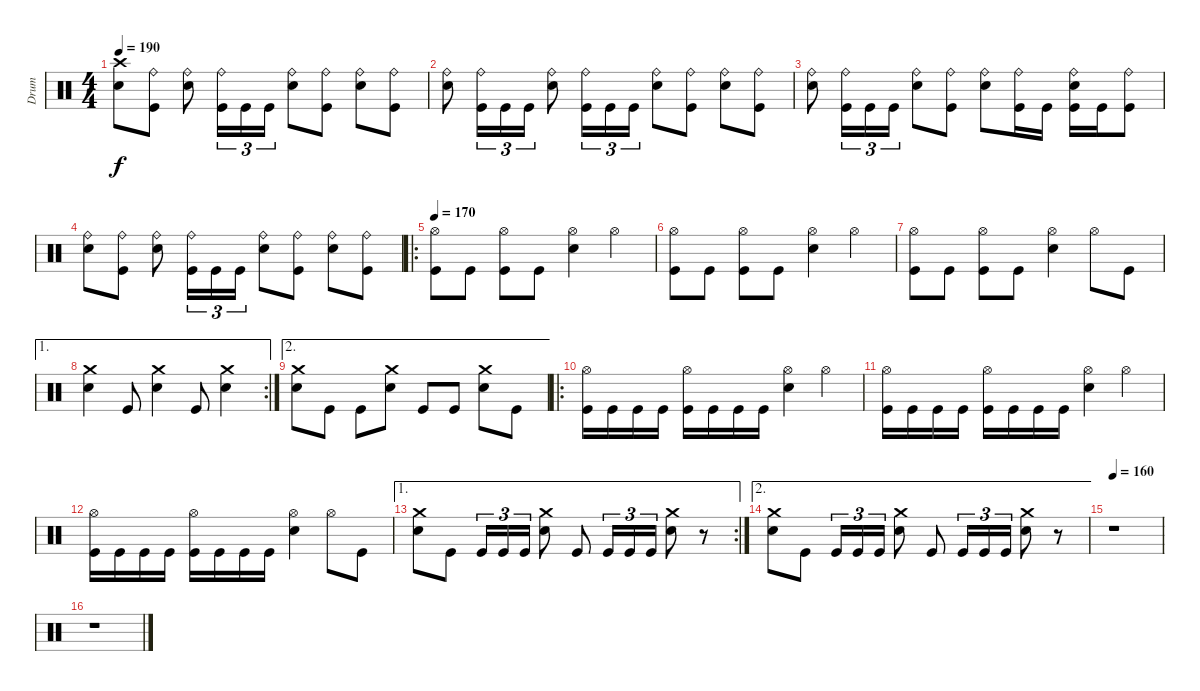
\track ("Drum" "Drum") {instrument percussion}
\staff {score}
\articulation defaults
\ts (4 4)
\tempo 190
\clef neutral
\ks c
("Electric Snare (hit)" "Crash high (hit)").8{dy f} ("Kick (hit)" "Ride (bell)").8 ("Electric Snare (hit)" "Ride (bell)").8 ("Kick (hit)" "Ride (bell)").16{tu (3 2)} "Kick (hit)".16{tu (3 2)} "Kick (hit)".16{tu (3 2)} ("Electric Snare (hit)" "Ride (bell)").8 ("Kick (hit)" "Ride (bell)").8 ("Electric Snare (hit)" "Ride (bell)").8 ("Kick (hit)" "Ride (bell)").8 |
("Electric Snare (hit)" "Ride (bell)").8 ("Kick (hit)" "Ride (bell)").16{tu (3 2)} "Kick (hit)".16{tu (3 2)} "Kick (hit)".16{tu (3 2)} ("Electric Snare (hit)" "Ride (bell)").8 ("Kick (hit)" "Ride (bell)").16{tu (3 2)} "Kick (hit)".16{tu (3 2)} "Kick (hit)".16{tu (3 2)} ("Electric Snare (hit)" "Ride (bell)").8 ("Kick (hit)" "Ride (bell)").8 ("Electric Snare (hit)" "Ride (bell)").8 ("Kick (hit)" "Ride (bell)").8 |
("Electric Snare (hit)" "Ride (bell)").8 ("Kick (hit)" "Ride (bell)").16{tu (3 2)} "Kick (hit)".16{tu (3 2)} "Kick (hit)".16{tu (3 2)} ("Electric Snare (hit)" "Ride (bell)").8 ("Kick (hit)" "Ride (bell)").8 ("Electric Snare (hit)" "Ride (bell)").8 ("Kick (hit)" "Ride (bell)").16 "Kick (hit)".16 ("Kick (hit)" "Electric Snare (hit)" "Ride (bell)").16 "Kick (hit)".16 ("Kick (hit)" "Ride (bell)").8 |
("Electric Snare (hit)" "Ride (bell)").8 ("Kick (hit)" "Ride (bell)").8 ("Electric Snare (hit)" "Ride (bell)").8 ("Kick (hit)" "Ride (bell)").16{tu (3 2)} "Kick (hit)".16{tu (3 2)} "Kick (hit)".16{tu (3 2)} ("Electric Snare (hit)" "Ride (bell)").8 ("Kick (hit)" "Ride (bell)").8 ("Electric Snare (hit)" "Ride (bell)").8 ("Kick (hit)" "Ride (bell)").8 |
\ro
\tempo 170
("Kick (hit)" "Hi-Hat (open)").8 "Kick (hit)".8 ("Kick (hit)" "Hi-Hat (open)").8 "Kick (hit)".8 ("Electric Snare (hit)" "Hi-Hat (open)").4 "Hi-Hat (open)".4 |
("Kick (hit)" "Hi-Hat (open)").8 "Kick (hit)".8 ("Kick (hit)" "Hi-Hat (open)").8 "Kick (hit)".8 ("Electric Snare (hit)" "Hi-Hat (open)").4 "Hi-Hat (open)".4 |
("Kick (hit)" "Hi-Hat (open)").8 "Kick (hit)".8 ("Kick (hit)" "Hi-Hat (open)").8 "Kick (hit)".8 ("Electric Snare (hit)" "Hi-Hat (open)").4 "Hi-Hat (open)".8 "Kick (hit)".8 |
\ae 1
\rc 2
("Electric Snare (hit)" "Crash medium (hit)").4 "Kick (hit)".8 ("Electric Snare (hit)" "Crash medium (hit)").4 "Kick (hit)".8 ("Electric Snare (hit)" "Crash medium (hit)").4 |
\ae 2
("Electric Snare (hit)" "Crash medium (hit)").8 "Kick (hit)".8 "Kick (hit)".8 ("Electric Snare (hit)" "Crash medium (hit)").8 "Kick (hit)".8 "Kick (hit)".8 ("Electric Snare (hit)" "Crash medium (hit)").8 "Kick (hit)".8 |
\ro
("Kick (hit)" "Hi-Hat (open)").16 "Kick (hit)".16 "Kick (hit)".16 "Kick (hit)".16 ("Kick (hit)" "Hi-Hat (open)").16 "Kick (hit)".16 "Kick (hit)".16 "Kick (hit)".16 ("Electric Snare (hit)" "Hi-Hat (open)").4 "Hi-Hat (open)".4 |
("Kick (hit)" "Hi-Hat (open)").16 "Kick (hit)".16 "Kick (hit)".16 "Kick (hit)".16 ("Kick (hit)" "Hi-Hat (open)").16 "Kick (hit)".16 "Kick (hit)".16 "Kick (hit)".16 ("Electric Snare (hit)" "Hi-Hat (open)").4 "Hi-Hat (open)".4 |
("Kick (hit)" "Hi-Hat (open)").16 "Kick (hit)".16 "Kick (hit)".16 "Kick (hit)".16 ("Kick (hit)" "Hi-Hat (open)").16 "Kick (hit)".16 "Kick (hit)".16 "Kick (hit)".16 ("Electric Snare (hit)" "Hi-Hat (open)").4 "Hi-Hat (open)".8 "Kick (hit)".8 |
\ae 1
\rc 2
("Electric Snare (hit)" "Crash medium (hit)").8 "Kick (hit)".8 "Kick (hit)".16{tu (3 2)} "Kick (hit)".16{tu (3 2)} "Kick (hit)".16{tu (3 2)} ("Electric Snare (hit)" "Crash medium (hit)").8 "Kick (hit)".8 "Kick (hit)".16{tu (3 2)} "Kick (hit)".16{tu (3 2)} "Kick (hit)".16{tu (3 2)} ("Electric Snare (hit)" "Crash medium (hit)").8 r.8 |
\ae 2
("Electric Snare (hit)" "Crash medium (hit)").8 "Kick (hit)".8 "Kick (hit)".16{tu (3 2)} "Kick (hit)".16{tu (3 2)} "Kick (hit)".16{tu (3 2)} ("Electric Snare (hit)" "Crash medium (hit)").8 "Kick (hit)".8 "Kick (hit)".16{tu (3 2)} "Kick (hit)".16{tu (3 2)} "Kick (hit)".16{tu (3 2)} ("Electric Snare (hit)" "Crash medium (hit)").8 r.8 |
\tempo 160
r.1 |
r.1
